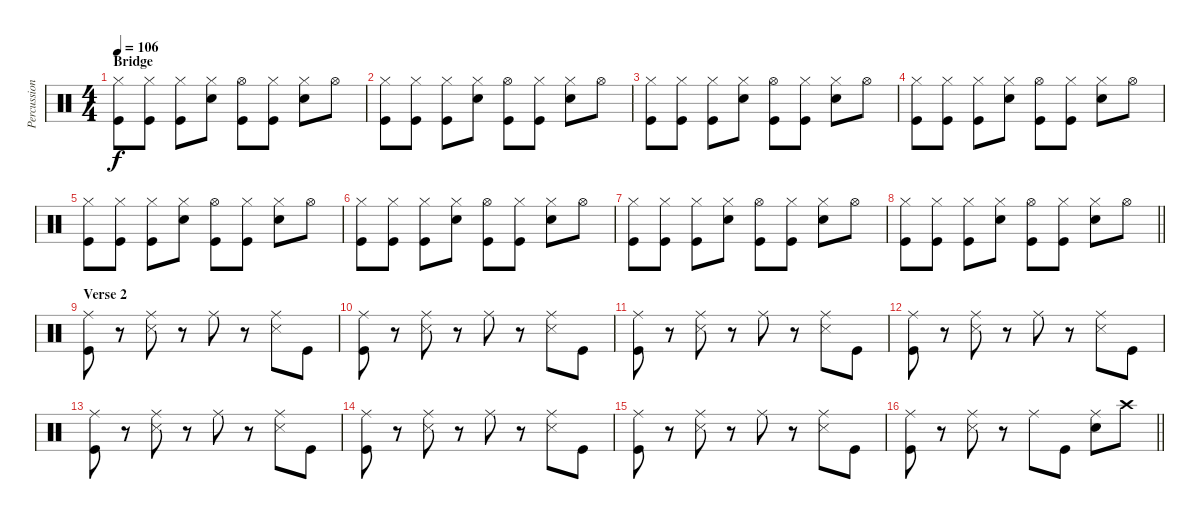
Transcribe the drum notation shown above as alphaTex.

\track ("Percussion" "Percussion") {instrument percussion}
\staff {score}
\articulation defaults
\ts (4 4)
\section ("" "Bridge ")
\tempo 106
\clef neutral
\ks c
("Hi-Hat (closed)" "Kick (hit)").8{dy f} ("Hi-Hat (closed)" "Kick (hit)").8 ("Hi-Hat (closed)" "Kick (hit)").8 ("Hi-Hat (closed)" "Snare (hit) 2").8 ("Hi-Hat (open)" "Kick (hit)").8 ("Hi-Hat (closed)" "Kick (hit)").8 ("Hi-Hat (closed)" "Snare (hit) 2").8 "Hi-Hat (open)".8 |
("Hi-Hat (closed)" "Kick (hit)").8 ("Hi-Hat (closed)" "Kick (hit)").8 ("Hi-Hat (closed)" "Kick (hit)").8 ("Hi-Hat (closed)" "Snare (hit) 2").8 ("Hi-Hat (open)" "Kick (hit)").8 ("Hi-Hat (closed)" "Kick (hit)").8 ("Hi-Hat (closed)" "Snare (hit) 2").8 "Hi-Hat (open)".8 |
("Hi-Hat (closed)" "Kick (hit)").8 ("Hi-Hat (closed)" "Kick (hit)").8 ("Hi-Hat (closed)" "Kick (hit)").8 ("Hi-Hat (closed)" "Snare (hit) 2").8 ("Hi-Hat (open)" "Kick (hit)").8 ("Hi-Hat (closed)" "Kick (hit)").8 ("Hi-Hat (closed)" "Snare (hit) 2").8 "Hi-Hat (open)".8 |
("Hi-Hat (closed)" "Kick (hit)").8 ("Hi-Hat (closed)" "Kick (hit)").8 ("Hi-Hat (closed)" "Kick (hit)").8 ("Hi-Hat (closed)" "Snare (hit) 2").8 ("Hi-Hat (open)" "Kick (hit)").8 ("Hi-Hat (closed)" "Kick (hit)").8 ("Hi-Hat (closed)" "Snare (hit) 2").8 "Hi-Hat (open)".8 |
("Hi-Hat (closed)" "Kick (hit)").8 ("Hi-Hat (closed)" "Kick (hit)").8 ("Hi-Hat (closed)" "Kick (hit)").8 ("Hi-Hat (closed)" "Snare (hit) 2").8 ("Hi-Hat (open)" "Kick (hit)").8 ("Hi-Hat (closed)" "Kick (hit)").8 ("Hi-Hat (closed)" "Snare (hit) 2").8 "Hi-Hat (open)".8 |
("Hi-Hat (closed)" "Kick (hit)").8 ("Hi-Hat (closed)" "Kick (hit)").8 ("Hi-Hat (closed)" "Kick (hit)").8 ("Hi-Hat (closed)" "Snare (hit) 2").8 ("Hi-Hat (open)" "Kick (hit)").8 ("Hi-Hat (closed)" "Kick (hit)").8 ("Hi-Hat (closed)" "Snare (hit) 2").8 "Hi-Hat (open)".8 |
("Hi-Hat (closed)" "Kick (hit)").8 ("Hi-Hat (closed)" "Kick (hit)").8 ("Hi-Hat (closed)" "Kick (hit)").8 ("Hi-Hat (closed)" "Snare (hit) 2").8 ("Hi-Hat (open)" "Kick (hit)").8 ("Hi-Hat (closed)" "Kick (hit)").8 ("Hi-Hat (closed)" "Snare (hit) 2").8 "Hi-Hat (open)".8 |
\barLineRight lightlight
("Hi-Hat (closed)" "Kick (hit)").8 ("Hi-Hat (closed)" "Kick (hit)").8 ("Hi-Hat (closed)" "Kick (hit)").8 ("Hi-Hat (closed)" "Snare (hit) 2").8 ("Hi-Hat (open)" "Kick (hit)").8 ("Hi-Hat (closed)" "Kick (hit)").8 ("Hi-Hat (closed)" "Snare (hit) 2").8 "Hi-Hat (open)".8 |
\section ("" "Verse 2")
("Ride (middle)" "Kick (hit)").8 r.8 ("Ride (middle)" "Snare (side stick) 3").8 r.8 "Ride (middle)".8 r.8 ("Ride (middle)" "Snare (side stick) 3").8 "Kick (hit)".8 |
("Ride (middle)" "Kick (hit)").8 r.8 ("Ride (middle)" "Snare (side stick) 3").8 r.8 "Ride (middle)".8 r.8 ("Ride (middle)" "Snare (side stick) 3").8 "Kick (hit)".8 |
("Ride (middle)" "Kick (hit)").8 r.8 ("Ride (middle)" "Snare (side stick) 3").8 r.8 "Ride (middle)".8 r.8 ("Ride (middle)" "Snare (side stick) 3").8 "Kick (hit)".8 |
("Ride (middle)" "Kick (hit)").8 r.8 ("Ride (middle)" "Snare (side stick) 3").8 r.8 "Ride (middle)".8 r.8 ("Ride (middle)" "Snare (side stick) 3").8 "Kick (hit)".8 |
("Ride (middle)" "Kick (hit)").8 r.8 ("Ride (middle)" "Snare (side stick) 3").8 r.8 "Ride (middle)".8 r.8 ("Ride (middle)" "Snare (side stick) 3").8 "Kick (hit)".8 |
("Ride (middle)" "Kick (hit)").8 r.8 ("Ride (middle)" "Snare (side stick) 3").8 r.8 "Ride (middle)".8 r.8 ("Ride (middle)" "Snare (side stick) 3").8 "Kick (hit)".8 |
("Ride (middle)" "Kick (hit)").8 r.8 ("Ride (middle)" "Snare (side stick) 3").8 r.8 "Ride (middle)".8 r.8 ("Ride (middle)" "Snare (side stick) 3").8 "Kick (hit)".8 |
\barLineRight lightlight
("Ride (middle)" "Kick (hit)").8 r.8 ("Ride (middle)" "Snare (side stick) 3").8 r.8 "Ride (middle)".8 "Kick (hit)".8 ("Ride (middle)" "Snare (hit) 2").8 "Crash high (hit)".8
